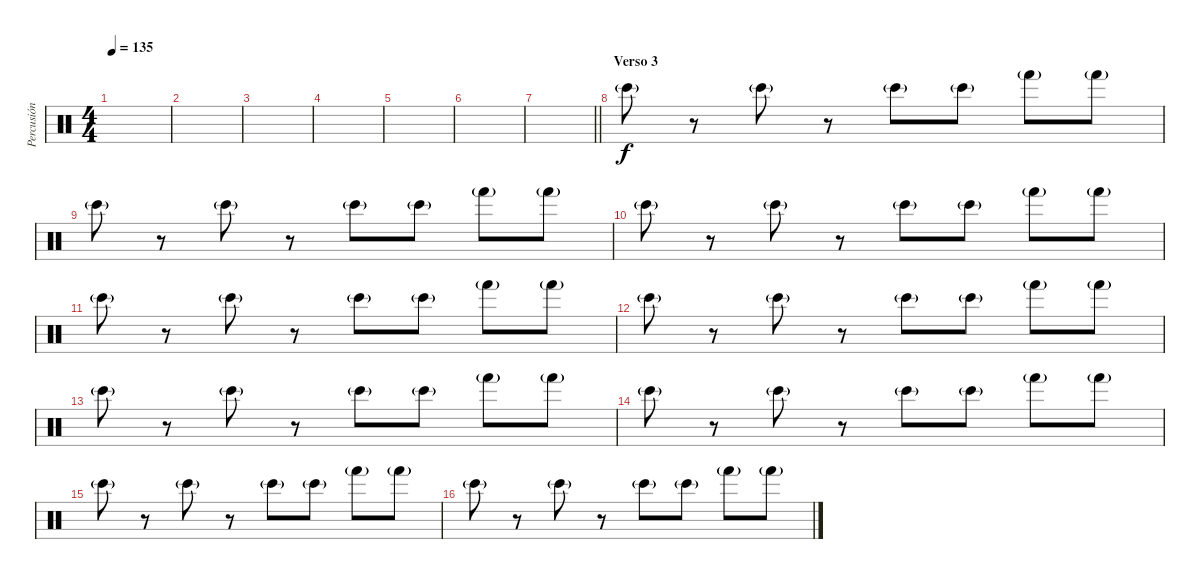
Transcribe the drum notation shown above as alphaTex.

\track ("Percusión" "Percusión") {instrument percussion}
\staff {score}
\articulation defaults
\ts (4 4)
\tempo 135
\clef neutral
\ks c
|
|
|
|
|
|
\barLineRight lightlight
|
\section ("" "Verso 3")
"Bongo High (hit)"{g}.8 r.8 "Bongo High (hit)"{g}.8 r.8 "Bongo High (hit)"{g}.8 "Bongo High (hit)"{g}.8 "Hand (hit)"{g}.8 "Hand (hit)"{g}.8 |
"Bongo High (hit)"{g}.8 r.8 "Bongo High (hit)"{g}.8 r.8 "Bongo High (hit)"{g}.8 "Bongo High (hit)"{g}.8 "Hand (hit)"{g}.8 "Hand (hit)"{g}.8 |
"Bongo High (hit)"{g}.8 r.8 "Bongo High (hit)"{g}.8 r.8 "Bongo High (hit)"{g}.8 "Bongo High (hit)"{g}.8 "Hand (hit)"{g}.8 "Hand (hit)"{g}.8 |
"Bongo High (hit)"{g}.8 r.8 "Bongo High (hit)"{g}.8 r.8 "Bongo High (hit)"{g}.8 "Bongo High (hit)"{g}.8 "Hand (hit)"{g}.8 "Hand (hit)"{g}.8 |
"Bongo High (hit)"{g}.8 r.8 "Bongo High (hit)"{g}.8 r.8 "Bongo High (hit)"{g}.8 "Bongo High (hit)"{g}.8 "Hand (hit)"{g}.8 "Hand (hit)"{g}.8 |
"Bongo High (hit)"{g}.8 r.8 "Bongo High (hit)"{g}.8 r.8 "Bongo High (hit)"{g}.8 "Bongo High (hit)"{g}.8 "Hand (hit)"{g}.8 "Hand (hit)"{g}.8 |
"Bongo High (hit)"{g}.8 r.8 "Bongo High (hit)"{g}.8 r.8 "Bongo High (hit)"{g}.8 "Bongo High (hit)"{g}.8 "Hand (hit)"{g}.8 "Hand (hit)"{g}.8 |
"Bongo High (hit)"{g}.8 r.8 "Bongo High (hit)"{g}.8 r.8 "Bongo High (hit)"{g}.8 "Bongo High (hit)"{g}.8 "Hand (hit)"{g}.8 "Hand (hit)"{g}.8 |
"Bongo High (hit)"{g}.8 r.8 "Bongo High (hit)"{g}.8 r.8 "Bongo High (hit)"{g}.8 "Bongo High (hit)"{g}.8 "Hand (hit)"{g}.8 "Hand (hit)"{g}.8
